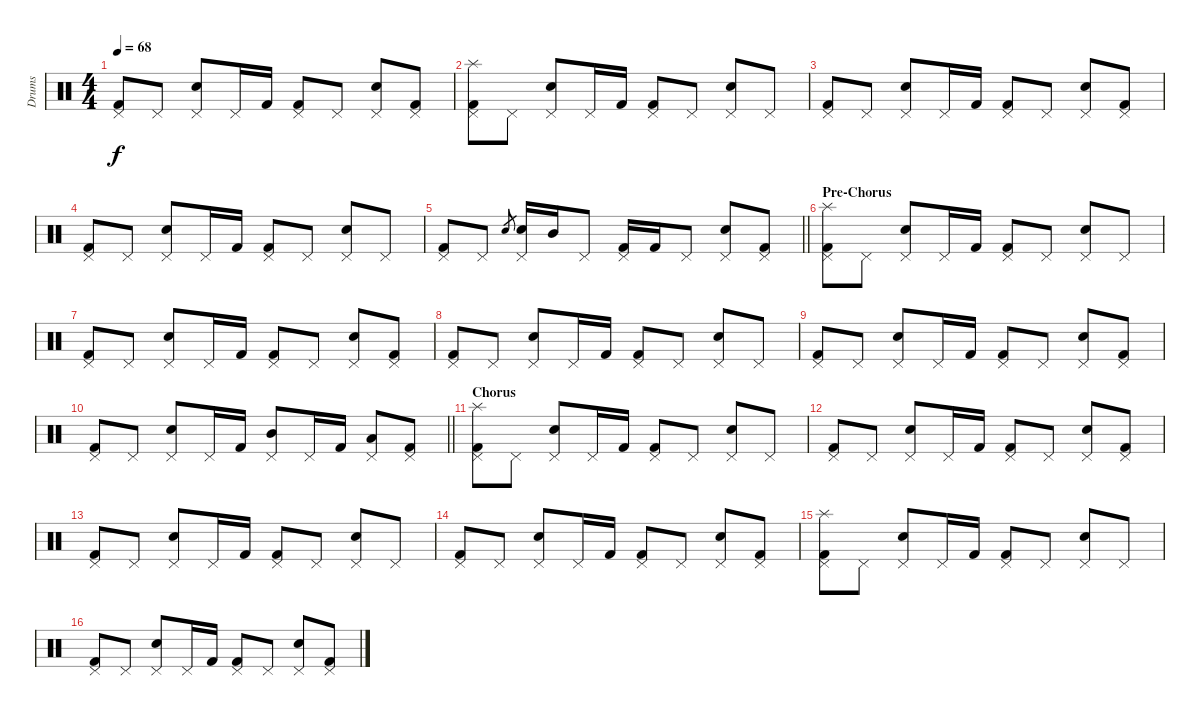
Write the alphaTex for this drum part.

\track ("Drums" "Drums") {instrument percussion}
\staff {score}
\articulation defaults
\ts (4 4)
\tempo 68
\clef neutral
\ks c
("Pedal Hi-Hat (hit)" "Kick (hit) 2").8{dy f} "Pedal Hi-Hat (hit)".8 ("Pedal Hi-Hat (hit)" "Electric Snare (hit)").8 "Pedal Hi-Hat (hit)".16 "Kick (hit) 2".16 ("Pedal Hi-Hat (hit)" "Kick (hit) 2").8 "Pedal Hi-Hat (hit)".8 ("Pedal Hi-Hat (hit)" "Electric Snare (hit)").8 ("Pedal Hi-Hat (hit)" "Kick (hit) 2").8 |
("Pedal Hi-Hat (hit)" "Splash (hit)" "Kick (hit) 2").8 "Pedal Hi-Hat (hit)".8 ("Pedal Hi-Hat (hit)" "Electric Snare (hit)").8 "Pedal Hi-Hat (hit)".16 "Kick (hit) 2".16 ("Pedal Hi-Hat (hit)" "Kick (hit) 2").8 "Pedal Hi-Hat (hit)".8 ("Pedal Hi-Hat (hit)" "Electric Snare (hit)").8 "Pedal Hi-Hat (hit)".8 |
("Pedal Hi-Hat (hit)" "Kick (hit) 2").8 "Pedal Hi-Hat (hit)".8 ("Pedal Hi-Hat (hit)" "Electric Snare (hit)").8 "Pedal Hi-Hat (hit)".16 "Kick (hit) 2".16 ("Pedal Hi-Hat (hit)" "Kick (hit) 2").8 "Pedal Hi-Hat (hit)".8 ("Pedal Hi-Hat (hit)" "Electric Snare (hit)").8 ("Pedal Hi-Hat (hit)" "Kick (hit) 2").8 |
("Pedal Hi-Hat (hit)" "Kick (hit) 2").8 "Pedal Hi-Hat (hit)".8 ("Pedal Hi-Hat (hit)" "Electric Snare (hit)").8 "Pedal Hi-Hat (hit)".16 "Kick (hit) 2".16 ("Pedal Hi-Hat (hit)" "Kick (hit) 2").8 "Pedal Hi-Hat (hit)".8 ("Pedal Hi-Hat (hit)" "Electric Snare (hit)").8 "Pedal Hi-Hat (hit)".8 |
\barLineRight lightlight
("Pedal Hi-Hat (hit)" "Kick (hit) 2").8 "Pedal Hi-Hat (hit)".8 "Electric Snare (hit)"{h}.8{gr} ("Pedal Hi-Hat (hit)" "Electric Snare (hit)").16 "Mid Tom (hit)".16 "Pedal Hi-Hat (hit)".8 ("Pedal Hi-Hat (hit)" "Kick (hit) 2").16 "Kick (hit) 2".16 "Pedal Hi-Hat (hit)".8 ("Pedal Hi-Hat (hit)" "Electric Snare (hit)").8 ("Pedal Hi-Hat (hit)" "Kick (hit) 2").8 |
\section ("" "Pre-Chorus")
("Pedal Hi-Hat (hit)" "Splash (hit)" "Kick (hit) 2").8 "Pedal Hi-Hat (hit)".8 ("Pedal Hi-Hat (hit)" "Electric Snare (hit)").8 "Pedal Hi-Hat (hit)".16 "Kick (hit) 2".16 ("Pedal Hi-Hat (hit)" "Kick (hit) 2").8 "Pedal Hi-Hat (hit)".8 ("Pedal Hi-Hat (hit)" "Electric Snare (hit)").8 "Pedal Hi-Hat (hit)".8 |
("Pedal Hi-Hat (hit)" "Kick (hit) 2").8 "Pedal Hi-Hat (hit)".8 ("Pedal Hi-Hat (hit)" "Electric Snare (hit)").8 "Pedal Hi-Hat (hit)".16 "Kick (hit) 2".16 ("Pedal Hi-Hat (hit)" "Kick (hit) 2").8 "Pedal Hi-Hat (hit)".8 ("Pedal Hi-Hat (hit)" "Electric Snare (hit)").8 ("Pedal Hi-Hat (hit)" "Kick (hit) 2").8 |
("Pedal Hi-Hat (hit)" "Kick (hit) 2").8 "Pedal Hi-Hat (hit)".8 ("Pedal Hi-Hat (hit)" "Electric Snare (hit)").8 "Pedal Hi-Hat (hit)".16 "Kick (hit) 2".16 ("Pedal Hi-Hat (hit)" "Kick (hit) 2").8 "Pedal Hi-Hat (hit)".8 ("Pedal Hi-Hat (hit)" "Electric Snare (hit)").8 "Pedal Hi-Hat (hit)".8 |
("Pedal Hi-Hat (hit)" "Kick (hit) 2").8 "Pedal Hi-Hat (hit)".8 ("Pedal Hi-Hat (hit)" "Electric Snare (hit)").8 "Pedal Hi-Hat (hit)".16 "Kick (hit) 2".16 ("Pedal Hi-Hat (hit)" "Kick (hit) 2").8 "Pedal Hi-Hat (hit)".8 ("Pedal Hi-Hat (hit)" "Electric Snare (hit)").8 ("Pedal Hi-Hat (hit)" "Kick (hit) 2").8 |
\barLineRight lightlight
("Pedal Hi-Hat (hit)" "Kick (hit) 2").8 "Pedal Hi-Hat (hit)".8 ("Pedal Hi-Hat (hit)" "Electric Snare (hit)").8 "Pedal Hi-Hat (hit)".16 "Kick (hit) 2".16 ("Pedal Hi-Hat (hit)" "Mid Tom (hit)").8 "Pedal Hi-Hat (hit)".16 "Kick (hit) 2".16 ("Pedal Hi-Hat (hit)" "Low Tom (hit)").8 ("Pedal Hi-Hat (hit)" "Kick (hit) 2").8 |
\section ("" "Chorus")
("Pedal Hi-Hat (hit)" "Splash (hit)" "Kick (hit) 2").8 "Pedal Hi-Hat (hit)".8 ("Pedal Hi-Hat (hit)" "Electric Snare (hit)").8 "Pedal Hi-Hat (hit)".16 "Kick (hit) 2".16 ("Pedal Hi-Hat (hit)" "Kick (hit) 2").8 "Pedal Hi-Hat (hit)".8 ("Pedal Hi-Hat (hit)" "Electric Snare (hit)").8 "Pedal Hi-Hat (hit)".8 |
("Pedal Hi-Hat (hit)" "Kick (hit) 2").8 "Pedal Hi-Hat (hit)".8 ("Pedal Hi-Hat (hit)" "Electric Snare (hit)").8 "Pedal Hi-Hat (hit)".16 "Kick (hit) 2".16 ("Pedal Hi-Hat (hit)" "Kick (hit) 2").8 "Pedal Hi-Hat (hit)".8 ("Pedal Hi-Hat (hit)" "Electric Snare (hit)").8 ("Pedal Hi-Hat (hit)" "Kick (hit) 2").8 |
("Pedal Hi-Hat (hit)" "Kick (hit) 2").8 "Pedal Hi-Hat (hit)".8 ("Pedal Hi-Hat (hit)" "Electric Snare (hit)").8 "Pedal Hi-Hat (hit)".16 "Kick (hit) 2".16 ("Pedal Hi-Hat (hit)" "Kick (hit) 2").8 "Pedal Hi-Hat (hit)".8 ("Pedal Hi-Hat (hit)" "Electric Snare (hit)").8 "Pedal Hi-Hat (hit)".8 |
("Pedal Hi-Hat (hit)" "Kick (hit) 2").8 "Pedal Hi-Hat (hit)".8 ("Pedal Hi-Hat (hit)" "Electric Snare (hit)").8 "Pedal Hi-Hat (hit)".16 "Kick (hit) 2".16 ("Pedal Hi-Hat (hit)" "Kick (hit) 2").8 "Pedal Hi-Hat (hit)".8 ("Pedal Hi-Hat (hit)" "Electric Snare (hit)").8 ("Pedal Hi-Hat (hit)" "Kick (hit) 2").8 |
("Pedal Hi-Hat (hit)" "Splash (hit)" "Kick (hit) 2").8 "Pedal Hi-Hat (hit)".8 ("Pedal Hi-Hat (hit)" "Electric Snare (hit)").8 "Pedal Hi-Hat (hit)".16 "Kick (hit) 2".16 ("Pedal Hi-Hat (hit)" "Kick (hit) 2").8 "Pedal Hi-Hat (hit)".8 ("Pedal Hi-Hat (hit)" "Electric Snare (hit)").8 "Pedal Hi-Hat (hit)".8 |
("Pedal Hi-Hat (hit)" "Kick (hit) 2").8 "Pedal Hi-Hat (hit)".8 ("Pedal Hi-Hat (hit)" "Electric Snare (hit)").8 "Pedal Hi-Hat (hit)".16 "Kick (hit) 2".16 ("Pedal Hi-Hat (hit)" "Kick (hit) 2").8 "Pedal Hi-Hat (hit)".8 ("Pedal Hi-Hat (hit)" "Electric Snare (hit)").8 ("Pedal Hi-Hat (hit)" "Kick (hit) 2").8
